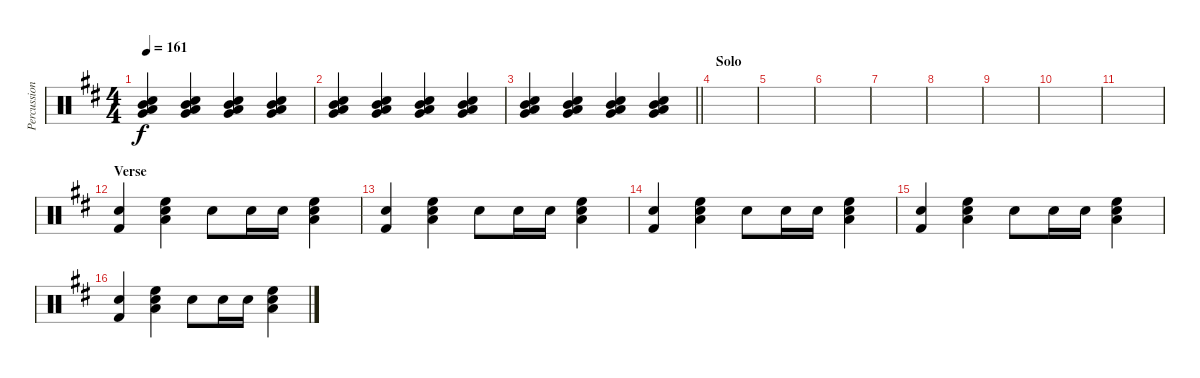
\track ("Percussion" "Percussion") {instrument percussion}
\staff {score}
\articulation defaults
\ts (4 4)
\tempo 161
\clef neutral
\ks d
("Low Tom (hit)" "Mid Tom (hit)" "Electric Snare (hit)" "Very Low Tom (hit)").4{dy f} ("Low Tom (hit)" "Mid Tom (hit)" "Electric Snare (hit)" "Very Low Tom (hit)").4 ("Low Tom (hit)" "Mid Tom (hit)" "Electric Snare (hit)" "Very Low Tom (hit)").4 ("Low Tom (hit)" "Mid Tom (hit)" "Electric Snare (hit)" "Very Low Tom (hit)").4 |
("Low Tom (hit)" "Mid Tom (hit)" "Electric Snare (hit)" "Very Low Tom (hit)").4 ("Low Tom (hit)" "Mid Tom (hit)" "Electric Snare (hit)" "Very Low Tom (hit)").4 ("Low Tom (hit)" "Mid Tom (hit)" "Electric Snare (hit)" "Very Low Tom (hit)").4 ("Low Tom (hit)" "Mid Tom (hit)" "Electric Snare (hit)" "Very Low Tom (hit)").4 |
\barLineRight lightlight
("Low Tom (hit)" "Mid Tom (hit)" "Electric Snare (hit)" "Very Low Tom (hit)").4 ("Low Tom (hit)" "Mid Tom (hit)" "Electric Snare (hit)" "Very Low Tom (hit)").4 ("Low Tom (hit)" "Mid Tom (hit)" "Electric Snare (hit)" "Very Low Tom (hit)").4 ("Low Tom (hit)" "Mid Tom (hit)" "Electric Snare (hit)" "Very Low Tom (hit)").4 |
\section ("" "Solo")
|
|
|
|
|
|
|
|
\section ("" "Verse")
("Kick (hit) 2" "Electric Snare (hit)").4 ("Low Tom (hit)" "High Floor Tom (hit)" "Electric Snare (hit)").4 "Electric Snare (hit)".8 "Electric Snare (hit)".16 "Electric Snare (hit)".16 ("Low Tom (hit)" "High Floor Tom (hit)" "Electric Snare (hit)").4 |
("Kick (hit) 2" "Electric Snare (hit)").4 ("Low Tom (hit)" "High Floor Tom (hit)" "Electric Snare (hit)").4 "Electric Snare (hit)".8 "Electric Snare (hit)".16 "Electric Snare (hit)".16 ("Low Tom (hit)" "High Floor Tom (hit)" "Electric Snare (hit)").4 |
("Kick (hit) 2" "Electric Snare (hit)").4 ("Low Tom (hit)" "High Floor Tom (hit)" "Electric Snare (hit)").4 "Electric Snare (hit)".8 "Electric Snare (hit)".16 "Electric Snare (hit)".16 ("Low Tom (hit)" "High Floor Tom (hit)" "Electric Snare (hit)").4 |
("Kick (hit) 2" "Electric Snare (hit)").4 ("Low Tom (hit)" "High Floor Tom (hit)" "Electric Snare (hit)").4 "Electric Snare (hit)".8 "Electric Snare (hit)".16 "Electric Snare (hit)".16 ("Low Tom (hit)" "High Floor Tom (hit)" "Electric Snare (hit)").4 |
("Kick (hit) 2" "Electric Snare (hit)").4 ("Low Tom (hit)" "High Floor Tom (hit)" "Electric Snare (hit)").4 "Electric Snare (hit)".8 "Electric Snare (hit)".16 "Electric Snare (hit)".16 ("Low Tom (hit)" "High Floor Tom (hit)" "Electric Snare (hit)").4
